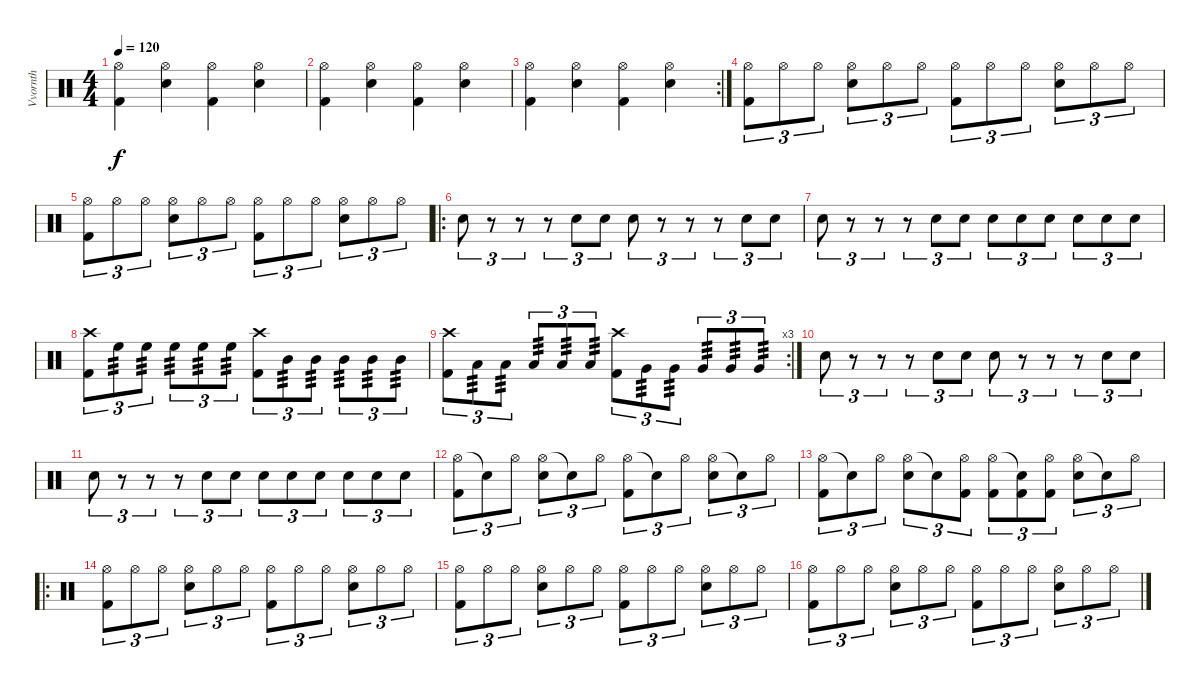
\track ("Vvornth" "Vvornth") {instrument percussion}
\staff {score}
\articulation defaults
\ts (4 4)
\tempo 120
\clef neutral
\ks c
("Hi-Hat (open)" "Kick (hit) 2").4{dy f} ("Hi-Hat (open)" "Snare (hit) 2").4 ("Hi-Hat (open)" "Kick (hit) 2").4 ("Hi-Hat (open)" "Snare (hit) 2").4 |
("Hi-Hat (open)" "Kick (hit) 2").4 ("Hi-Hat (open)" "Snare (hit) 2").4 ("Hi-Hat (open)" "Kick (hit) 2").4 ("Hi-Hat (open)" "Snare (hit) 2").4 |
\rc 2
("Hi-Hat (open)" "Kick (hit) 2").4 ("Hi-Hat (open)" "Snare (hit) 2").4 ("Hi-Hat (open)" "Kick (hit) 2").4 ("Hi-Hat (open)" "Snare (hit) 2").4 |
("Hi-Hat (open)" "Kick (hit) 2").8{tu (3 2)} "Hi-Hat (open)".8{tu (3 2)} "Hi-Hat (open)".8{tu (3 2)} ("Hi-Hat (open)" "Snare (hit) 2").8{tu (3 2)} "Hi-Hat (open)".8{tu (3 2)} "Hi-Hat (open)".8{tu (3 2)} ("Hi-Hat (open)" "Kick (hit) 2").8{tu (3 2)} "Hi-Hat (open)".8{tu (3 2)} "Hi-Hat (open)".8{tu (3 2)} ("Hi-Hat (open)" "Snare (hit) 2").8{tu (3 2)} "Hi-Hat (open)".8{tu (3 2)} "Hi-Hat (open)".8{tu (3 2)} |
("Hi-Hat (open)" "Kick (hit) 2").8{tu (3 2)} "Hi-Hat (open)".8{tu (3 2)} "Hi-Hat (open)".8{tu (3 2)} ("Hi-Hat (open)" "Snare (hit) 2").8{tu (3 2)} "Hi-Hat (open)".8{tu (3 2)} "Hi-Hat (open)".8{tu (3 2)} ("Hi-Hat (open)" "Kick (hit) 2").8{tu (3 2)} "Hi-Hat (open)".8{tu (3 2)} "Hi-Hat (open)".8{tu (3 2)} ("Hi-Hat (open)" "Snare (hit) 2").8{tu (3 2)} "Hi-Hat (open)".8{tu (3 2)} "Hi-Hat (open)".8{tu (3 2)} |
\ro "Snare (hit) 2".8{tu (3 2)}
r.8{tu (3 2)} r.8{tu (3 2)} r.8{tu (3 2)} "Snare (hit) 2".8{tu (3 2)} "Snare (hit) 2".8{tu (3 2)} "Snare (hit) 2".8{tu (3 2)} r.8{tu (3 2)} r.8{tu (3 2)} r.8{tu (3 2)} "Snare (hit) 2".8{tu (3 2)} "Snare (hit) 2".8{tu (3 2)} |
"Snare (hit) 2".8{tu (3 2)} r.8{tu (3 2)} r.8{tu (3 2)} r.8{tu (3 2)} "Snare (hit) 2".8{tu (3 2)} "Snare (hit) 2".8{tu (3 2)} "Snare (hit) 2".8{tu (3 2)} "Snare (hit) 2".8{tu (3 2)} "Snare (hit) 2".8{tu (3 2)} "Snare (hit) 2".8{tu (3 2)} "Snare (hit) 2".8{tu (3 2)} "Snare (hit) 2".8{tu (3 2)} |
("Crash high (hit)" "Kick (hit) 2").8{tu (3 2)} "High Floor Tom (hit)".8{tu (3 2) tp 3} "High Floor Tom (hit)".8{tu (3 2) tp 3} "High Floor Tom (hit)".8{tu (3 2) tp 3} "High Floor Tom (hit)".8{tu (3 2) tp 3} "High Floor Tom (hit)".8{tu (3 2) tp 3} ("Crash high (hit)" "Kick (hit) 2").8{tu (3 2)} "Mid Tom (hit)".8{tu (3 2) tp 3} "Mid Tom (hit)".8{tu (3 2) tp 3} "Mid Tom (hit)".8{tu (3 2) tp 3} "Mid Tom (hit)".8{tu (3 2) tp 3} "Mid Tom (hit)".8{tu (3 2) tp 3} |
\rc 3
("Crash high (hit)" "Kick (hit) 2").8{tu (3 2)} "Low Tom (hit)".8{tu (3 2) tp 3} "Low Tom (hit)".8{tu (3 2) tp 3} "Low Tom (hit)".8{tu (3 2) tp 3} "Low Tom (hit)".8{tu (3 2) tp 3} "Low Tom (hit)".8{tu (3 2) tp 3} ("Crash high (hit)" "Kick (hit) 2").8{tu (3 2)} "Very Low Tom (hit)".8{tu (3 2) tp 3} "Very Low Tom (hit)".8{tu (3 2) tp 3} "Very Low Tom (hit)".8{tu (3 2) tp 3} "Very Low Tom (hit)".8{tu (3 2) tp 3} "Very Low Tom (hit)".8{tu (3 2) tp 3} |
"Snare (hit) 2".8{tu (3 2)} r.8{tu (3 2)} r.8{tu (3 2)} r.8{tu (3 2)} "Snare (hit) 2".8{tu (3 2)} "Snare (hit) 2".8{tu (3 2)} "Snare (hit) 2".8{tu (3 2)} r.8{tu (3 2)} r.8{tu (3 2)} r.8{tu (3 2)} "Snare (hit) 2".8{tu (3 2)} "Snare (hit) 2".8{tu (3 2)} |
"Snare (hit) 2".8{tu (3 2)} r.8{tu (3 2)} r.8{tu (3 2)} r.8{tu (3 2)} "Snare (hit) 2".8{tu (3 2)} "Snare (hit) 2".8{tu (3 2)} "Snare (hit) 2".8{tu (3 2)} "Snare (hit) 2".8{tu (3 2)} "Snare (hit) 2".8{tu (3 2)} "Snare (hit) 2".8{tu (3 2)} "Snare (hit) 2".8{tu (3 2)} "Snare (hit) 2".8{tu (3 2)} |
("Hi-Hat (open)" "Kick (hit) 2").8{tu (3 2)} "Snare (hit)"{t}.8{tu (3 2)} "Hi-Hat (open)".8{tu (3 2)} ("Hi-Hat (open)" "Snare (hit) 2").8{tu (3 2)} "Snare (hit)"{t}.8{tu (3 2)} "Hi-Hat (open)".8{tu (3 2)} ("Hi-Hat (open)" "Kick (hit) 2").8{tu (3 2)} "Snare (hit)"{t}.8{tu (3 2)} "Hi-Hat (open)".8{tu (3 2)} ("Hi-Hat (open)" "Snare (hit) 2").8{tu (3 2)} "Snare (hit)"{t}.8{tu (3 2)} "Hi-Hat (open)".8{tu (3 2)} |
("Hi-Hat (open)" "Kick (hit) 2").8{tu (3 2)} "Snare (hit)"{t}.8{tu (3 2)} "Hi-Hat (open)".8{tu (3 2)} ("Hi-Hat (open)" "Snare (hit) 2").8{tu (3 2)} "Snare (hit)"{t}.8{tu (3 2)} ("Hi-Hat (open)" "Kick (hit) 2").8{tu (3 2)} ("Hi-Hat (open)" "Kick (hit) 2").8{tu (3 2)} ("Snare (hit)"{t} "Kick (hit) 2").8{tu (3 2)} ("Hi-Hat (open)" "Kick (hit) 2").8{tu (3 2)} ("Hi-Hat (open)" "Snare (hit) 2").8{tu (3 2)} "Snare (hit)"{t}.8{tu (3 2)} "Hi-Hat (open)".8{tu (3 2)} |
\ro
("Hi-Hat (open)" "Kick (hit) 2").8{tu (3 2)} "Hi-Hat (open)".8{tu (3 2)} "Hi-Hat (open)".8{tu (3 2)} ("Hi-Hat (open)" "Snare (hit) 2").8{tu (3 2)} "Hi-Hat (open)".8{tu (3 2)} "Hi-Hat (open)".8{tu (3 2)} ("Hi-Hat (open)" "Kick (hit) 2").8{tu (3 2)} "Hi-Hat (open)".8{tu (3 2)} "Hi-Hat (open)".8{tu (3 2)} ("Hi-Hat (open)" "Snare (hit) 2").8{tu (3 2)} "Hi-Hat (open)".8{tu (3 2)} "Hi-Hat (open)".8{tu (3 2)} |
("Hi-Hat (open)" "Kick (hit) 2").8{tu (3 2)} "Hi-Hat (open)".8{tu (3 2)} "Hi-Hat (open)".8{tu (3 2)} ("Hi-Hat (open)" "Snare (hit) 2").8{tu (3 2)} "Hi-Hat (open)".8{tu (3 2)} "Hi-Hat (open)".8{tu (3 2)} ("Hi-Hat (open)" "Kick (hit) 2").8{tu (3 2)} "Hi-Hat (open)".8{tu (3 2)} "Hi-Hat (open)".8{tu (3 2)} ("Hi-Hat (open)" "Snare (hit) 2").8{tu (3 2)} "Hi-Hat (open)".8{tu (3 2)} "Hi-Hat (open)".8{tu (3 2)} |
("Hi-Hat (open)" "Kick (hit) 2").8{tu (3 2)} "Hi-Hat (open)".8{tu (3 2)} "Hi-Hat (open)".8{tu (3 2)} ("Hi-Hat (open)" "Snare (hit) 2").8{tu (3 2)} "Hi-Hat (open)".8{tu (3 2)} "Hi-Hat (open)".8{tu (3 2)} ("Hi-Hat (open)" "Kick (hit) 2").8{tu (3 2)} "Hi-Hat (open)".8{tu (3 2)} "Hi-Hat (open)".8{tu (3 2)} ("Hi-Hat (open)" "Snare (hit) 2").8{tu (3 2)} "Hi-Hat (open)".8{tu (3 2)} "Hi-Hat (open)".8{tu (3 2)}
